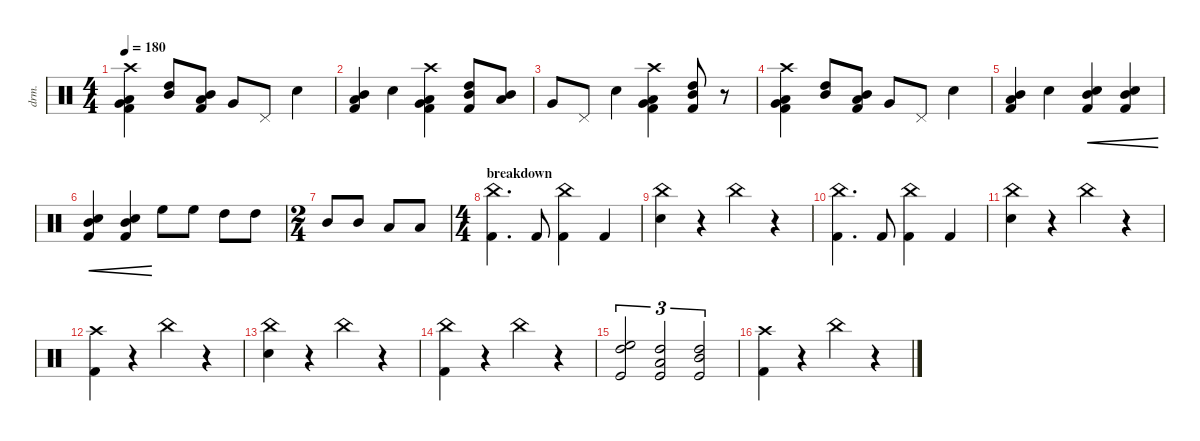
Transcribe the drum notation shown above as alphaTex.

\defaultSystemsLayout 4
\hideDynamics
\bracketExtendMode nobrackets
\otherSystemsTrackNameOrientation horizontal
\track ("Joosep" "drm.") {instrument percussion}
\staff {score}
\articulation defaults
\ts (4 4)
\tempo 180
\clef neutral
\ks c
("Low Tom (hit)" "Very Low Tom (hit)" "Crash high (hit)" "Kick (hit) 2").4{dy mf beam Down} ("High Tom (hit)" "Mid Tom (hit)").8{beam Up} ("Low Tom (hit)" "Mid Tom (hit)" "Kick (hit) 2").8{beam Up} "Very Low Tom (hit)".8{beam Up} "Pedal Hi-Hat (hit)".8{beam Up} "Snare (hit) 2".4{beam Down} |
("Low Tom (hit)" "Mid Tom (hit)" "Kick (hit) 2").4{beam Up} "Snare (hit) 2".4{beam Down} ("Kick (hit) 2" "Low Tom (hit)" "Very Low Tom (hit)" "Crash high (hit)").4{beam Down} ("High Tom (hit)" "Mid Tom (hit)" "Kick (hit) 2").8{beam Up} ("Low Tom (hit)" "Mid Tom (hit)").8{beam Up} |
"Very Low Tom (hit)".8{beam Up} "Pedal Hi-Hat (hit)".8{beam Up} "Snare (hit) 2".4{beam Down} ("Kick (hit) 2" "Low Tom (hit)" "Very Low Tom (hit)" "Crash high (hit)").4{beam Down} ("High Tom (hit)" "Mid Tom (hit)" "Kick (hit) 2").8{beam Up} r.8{beam Up} |
("Low Tom (hit)" "Very Low Tom (hit)" "Crash high (hit)" "Kick (hit) 2").4{beam Down} ("High Tom (hit)" "Mid Tom (hit)").8{beam Up} ("Low Tom (hit)" "Mid Tom (hit)" "Kick (hit) 2").8{beam Up} "Very Low Tom (hit)".8{beam Up} "Pedal Hi-Hat (hit)".8{beam Up} "Snare (hit) 2".4{beam Down} |
("Low Tom (hit)" "Mid Tom (hit)" "Kick (hit) 2").4{beam Up} "Snare (hit) 2".4{beam Down} ("Kick (hit) 2" "Mid Tom (hit)" "Snare (hit) 2").4{cre beam Up} ("Kick (hit) 2" "Snare (hit) 2" "Mid Tom (hit)").4{cre beam Up} |
("Kick (hit) 2" "Mid Tom (hit)" "Snare (hit) 2").4{cre beam Up} ("Kick (hit) 2" "Snare (hit) 2" "Mid Tom (hit)").4{cre beam Up} "High Floor Tom (hit)".8{beam Down} "High Floor Tom (hit)".8{beam Down} "High Tom (hit)".8{beam Down} "High Tom (hit)".8{beam Down} |
\ts (2 4)
\beaming (8 2 2)
"Mid Tom (hit)".8{beam Up} "Mid Tom (hit)".8{beam Up} "Low Tom (hit)".8{beam Up} "Low Tom (hit)".8{beam Up} |
\ts (4 4)
\beaming (8 2 2 2 2)
\section ("" "breakdown")
("Kick (hit) 2" "China (hit)").4{d beam Down} "Kick (hit) 2".8{beam Up} ("Kick (hit) 2" "China (hit)").4{beam Down} "Kick (hit) 2".4{beam Up} |
("Snare (hit) 2" "China (hit)").4{beam Down} r.4{beam Down} "China (hit)".4{beam Down} r.4{beam Down} |
("Kick (hit) 2" "China (hit)").4{d beam Down} "Kick (hit) 2".8{beam Up} ("Kick (hit) 2" "China (hit)").4{beam Down} "Kick (hit) 2".4{beam Up} |
("Snare (hit) 2" "China (hit)").4{beam Down} r.4{beam Down} "China (hit)".4{beam Down} r.4{beam Down} |
("Kick (hit) 2" "Crash high (hit)").4{beam Down} r.4{beam Down} "China (hit)".4{beam Down} r.4{beam Down} |
("Snare (hit) 2" "China (hit)").4{beam Down} r.4{beam Down} "China (hit)".4{beam Down} r.4{beam Down} |
("Kick (hit) 2" "China (hit)").4{beam Down} r.4{beam Down} "China (hit)".4{beam Down} r.4{beam Down} |
("Kick (hit)" "High Floor Tom (hit)" "High Tom (hit)").2{tu (3 2) beam Up} ("Kick (hit)" "High Tom (hit)" "Low Tom (hit)").2{tu (3 2) beam Up} ("Kick (hit)" "Mid Tom (hit)" "High Tom (hit)").2{tu (3 2) beam Up} |
("Kick (hit) 2" "Crash high (hit)").4{beam Down} r.4{beam Down} "China (hit)".4{beam Down} r.4{beam Down}
